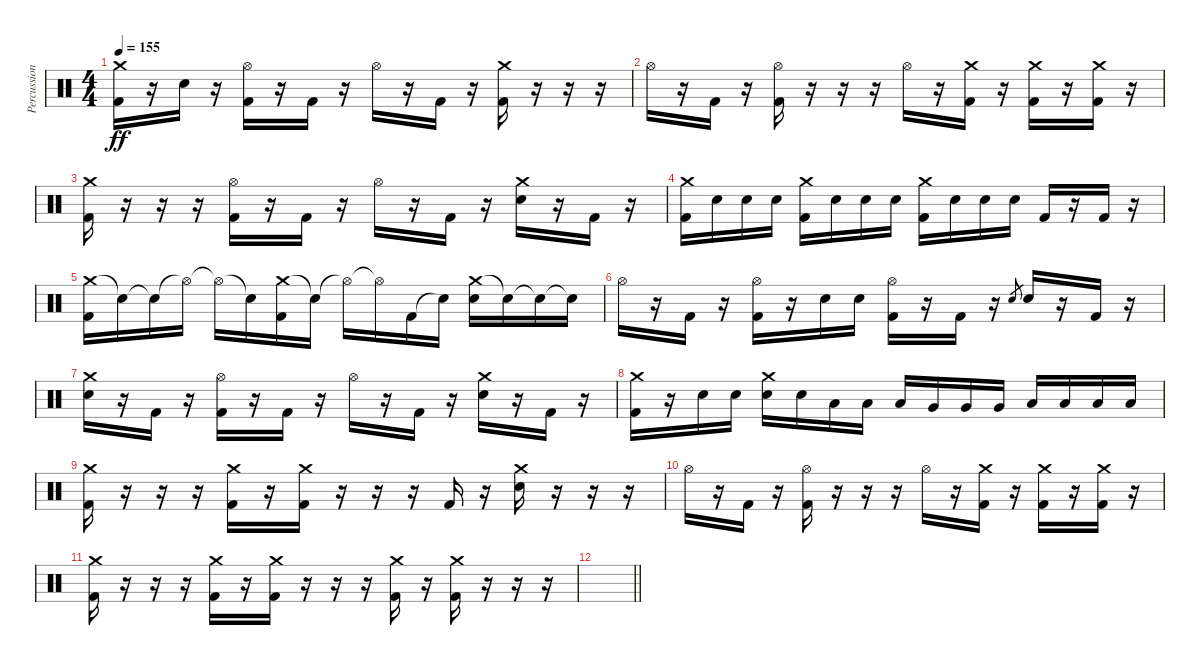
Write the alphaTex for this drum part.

\track ("Percussion" "Percussion") {instrument percussion}
\staff {score}
\articulation defaults
\ts (4 4)
\tempo 155
\clef neutral
\ks c
("Crash medium (hit)" "Kick (hit) 2").16{dy ff} r.16 "Electric Snare (hit)".16 r.16 ("Hi-Hat (open)" "Kick (hit) 2").16 r.16 "Kick (hit) 2".16 r.16 "Hi-Hat (open)".16 r.16 "Kick (hit) 2".16 r.16 ("Crash medium (hit)" "Kick (hit) 2").16 r.16 r.16 r.16 |
"Hi-Hat (open)".16 r.16 "Kick (hit) 2".16 r.16 ("Hi-Hat (open)" "Kick (hit) 2").16 r.16 r.16 r.16 "Hi-Hat (open)".16 r.16 ("Crash medium (hit)" "Kick (hit) 2").16 r.16 ("Crash medium (hit)" "Kick (hit) 2").16 r.16 ("Crash medium (hit)" "Kick (hit) 2").16 r.16 |
("Crash medium (hit)" "Kick (hit) 2").16 r.16 r.16 r.16 ("Hi-Hat (open)" "Kick (hit) 2").16 r.16 "Kick (hit) 2".16 r.16 "Hi-Hat (open)".16 r.16 "Kick (hit) 2".16 r.16 ("Crash medium (hit)" "Electric Snare (hit)").16 r.16 "Kick (hit) 2".16 r.16 |
("Crash medium (hit)" "Kick (hit) 2").16 "Electric Snare (hit)".16 "Electric Snare (hit)".16 "Electric Snare (hit)".16 ("Crash medium (hit)" "Kick (hit) 2").16 "Electric Snare (hit)".16 "Electric Snare (hit)".16 "Electric Snare (hit)".16 ("Crash medium (hit)" "Kick (hit) 2").16 "Electric Snare (hit)".16 "Electric Snare (hit)".16 "Electric Snare (hit)".16 "Kick (hit) 2".16 r.16 "Kick (hit) 2".16 r.16 |
("Crash medium (hit)" "Kick (hit) 2").16 "Snare (hit)"{t}.16 "Snare (hit)"{t}.16 "Hi-Hat (open)"{t}.16 "Hi-Hat (open)"{t}.16 "Snare (hit)"{t}.16 ("Crash medium (hit)" "Kick (hit) 2").16 "Snare (hit)"{t}.16 "Hi-Hat (open)"{t}.16 "Hi-Hat (open)"{t}.16 "Kick (hit) 2".16 "Snare (hit)"{t}.16 ("Crash medium (hit)" "Electric Snare (hit)").16 "Snare (hit)"{t}.16 "Snare (hit)"{t}.16 "Snare (hit)"{t}.16 |
"Hi-Hat (open)".16 r.16 "Kick (hit) 2".16 r.16 ("Hi-Hat (open)" "Kick (hit) 2").16 r.16 "Electric Snare (hit)".16 "Electric Snare (hit)".16 ("Hi-Hat (open)" "Kick (hit) 2").16 r.16 "Kick (hit) 2".16 r.16 "Electric Snare (hit)".8{gr} "Electric Snare (hit)".16 r.16 "Kick (hit) 2".16 r.16 |
("Crash medium (hit)" "Electric Snare (hit)").16 r.16 "Kick (hit) 2".16 r.16 ("Hi-Hat (open)" "Kick (hit) 2").16 r.16 "Kick (hit) 2".16 r.16 "Hi-Hat (open)".16 r.16 "Kick (hit) 2".16 r.16 ("Crash medium (hit)" "Electric Snare (hit)").16 r.16 "Kick (hit) 2".16 r.16 |
("Crash medium (hit)" "Kick (hit) 2").16 r.16 "Electric Snare (hit)".16 "Electric Snare (hit)".16 ("Crash medium (hit)" "Electric Snare (hit)").16 "Electric Snare (hit)".16 "Low Tom (hit)".16 "Low Tom (hit)".16 "Low Tom (hit)".16 "Very Low Tom (hit)".16 "Very Low Tom (hit)".16 "Very Low Tom (hit)".16 "Low Floor Tom (hit)".16 "Low Floor Tom (hit)".16 "Low Floor Tom (hit)".16 "Low Floor Tom (hit)".16 |
("Crash medium (hit)" "Kick (hit) 2").16 r.16 r.16 r.16 ("Crash medium (hit)" "Kick (hit) 2").16 r.16 ("Crash medium (hit)" "Kick (hit) 2").16 r.16 r.16 r.16 "Kick (hit) 2".16 r.16 ("Crash medium (hit)" "Electric Snare (hit)").16 r.16 r.16 r.16 |
"Hi-Hat (open)".16 r.16 "Kick (hit) 2".16 r.16 ("Hi-Hat (open)" "Kick (hit) 2").16 r.16 r.16 r.16 "Hi-Hat (open)".16 r.16 ("Crash medium (hit)" "Kick (hit) 2").16 r.16 ("Crash medium (hit)" "Kick (hit) 2").16 r.16 ("Crash medium (hit)" "Kick (hit) 2").16 r.16 |
("Crash medium (hit)" "Kick (hit) 2").16 r.16 r.16 r.16 ("Crash medium (hit)" "Kick (hit) 2").16 r.16 ("Crash medium (hit)" "Kick (hit) 2").16 r.16 r.16 r.16 ("Crash medium (hit)" "Kick (hit) 2").16 r.16 ("Crash medium (hit)" "Kick (hit) 2").16 r.16 r.16 r.16 |
\barLineRight lightlight
